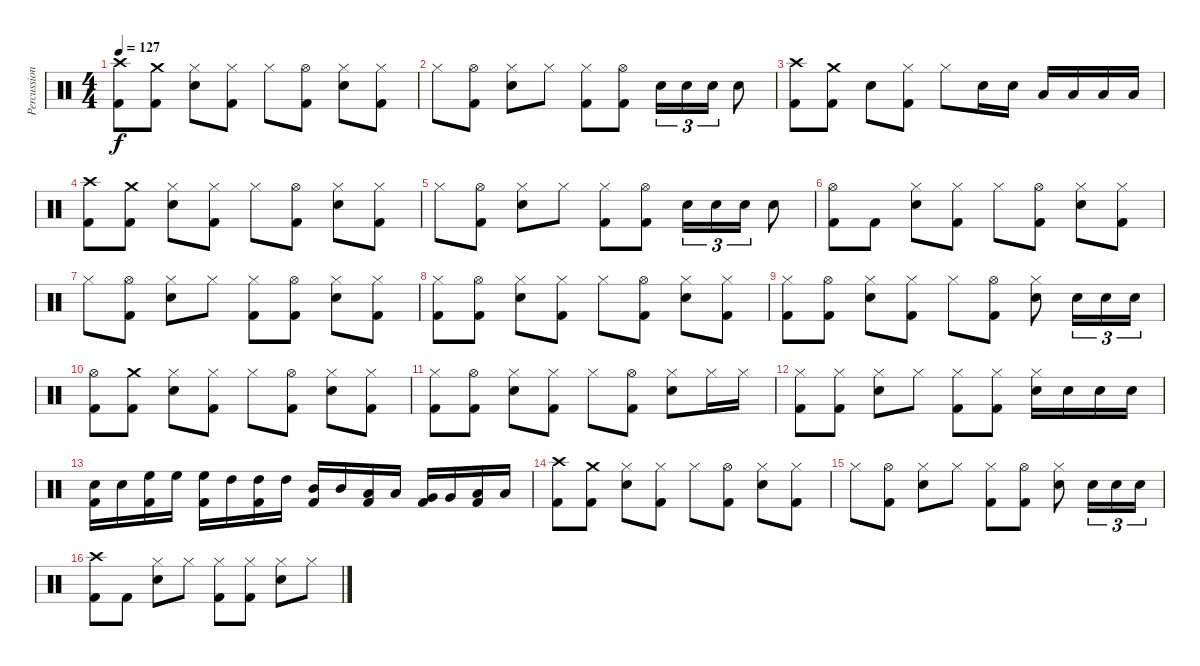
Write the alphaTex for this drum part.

\track ("Percussion" "Percussion") {instrument percussion}
\staff {score}
\articulation defaults
\ts (4 4)
\tempo 127
\clef neutral
\ks c
("Kick (hit) 2" "Crash high (hit)").8{dy f} ("Kick (hit) 2" "Crash medium (hit)").8 ("Snare (hit) 2" "Hi-Hat (closed)").8 ("Kick (hit) 2" "Hi-Hat (closed)").8 "Hi-Hat (closed)".8 ("Kick (hit) 2" "Hi-Hat (open)").8 ("Snare (hit) 2" "Hi-Hat (closed)").8 ("Kick (hit) 2" "Hi-Hat (closed)").8 |
"Hi-Hat (closed)".8 ("Kick (hit) 2" "Hi-Hat (open)").8 ("Snare (hit) 2" "Hi-Hat (closed)").8 "Hi-Hat (closed)".8 ("Kick (hit) 2" "Hi-Hat (closed)").8 ("Kick (hit) 2" "Hi-Hat (open)").8 "Snare (hit) 2".16{tu (3 2)} "Snare (hit) 2".16{tu (3 2)} "Snare (hit) 2".16{tu (3 2)} "Snare (hit) 2".8 |
("Kick (hit) 2" "Crash high (hit)").8 ("Kick (hit) 2" "Crash medium (hit)").8 "Snare (hit) 2".8 ("Kick (hit) 2" "Hi-Hat (closed)").8 "Hi-Hat (closed)".8 "Snare (hit) 2".16 "Snare (hit) 2".16 "Low Tom (hit)".16 "Low Tom (hit)".16 "Low Tom (hit)".16 "Low Tom (hit)".16 |
("Kick (hit) 2" "Crash high (hit)").8 ("Kick (hit) 2" "Crash medium (hit)").8 ("Snare (hit) 2" "Hi-Hat (closed)").8 ("Kick (hit) 2" "Hi-Hat (closed)").8 "Hi-Hat (closed)".8 ("Kick (hit) 2" "Hi-Hat (open)").8 ("Snare (hit) 2" "Hi-Hat (closed)").8 ("Kick (hit) 2" "Hi-Hat (closed)").8 |
"Hi-Hat (closed)".8 ("Kick (hit) 2" "Hi-Hat (open)").8 ("Snare (hit) 2" "Hi-Hat (closed)").8 "Hi-Hat (closed)".8 ("Kick (hit) 2" "Hi-Hat (closed)").8 ("Kick (hit) 2" "Hi-Hat (open)").8 "Snare (hit) 2".16{tu (3 2)} "Snare (hit) 2".16{tu (3 2)} "Snare (hit) 2".16{tu (3 2)} "Snare (hit) 2".8 |
("Kick (hit) 2" "Hi-Hat (open)").8 "Kick (hit) 2".8 ("Snare (hit) 2" "Hi-Hat (closed)").8 ("Kick (hit) 2" "Hi-Hat (closed)").8 "Hi-Hat (closed)".8 ("Kick (hit) 2" "Hi-Hat (open)").8 ("Snare (hit) 2" "Hi-Hat (closed)").8 ("Kick (hit) 2" "Hi-Hat (closed)").8 |
"Hi-Hat (closed)".8 ("Kick (hit) 2" "Hi-Hat (open)").8 ("Snare (hit) 2" "Hi-Hat (closed)").8 "Hi-Hat (closed)".8 ("Kick (hit) 2" "Hi-Hat (closed)").8 ("Kick (hit) 2" "Hi-Hat (open)").8 ("Snare (hit) 2" "Hi-Hat (closed)").8 ("Kick (hit) 2" "Hi-Hat (closed)").8 |
("Kick (hit) 2" "Hi-Hat (closed)").8 ("Kick (hit) 2" "Hi-Hat (open)").8 ("Snare (hit) 2" "Hi-Hat (closed)").8 ("Kick (hit) 2" "Hi-Hat (closed)").8 "Hi-Hat (closed)".8 ("Kick (hit) 2" "Hi-Hat (open)").8 ("Snare (hit) 2" "Hi-Hat (closed)").8 ("Kick (hit) 2" "Hi-Hat (closed)").8 |
("Kick (hit) 2" "Hi-Hat (closed)").8 ("Kick (hit) 2" "Hi-Hat (open)").8 ("Snare (hit) 2" "Hi-Hat (closed)").8 ("Kick (hit) 2" "Hi-Hat (closed)").8 "Hi-Hat (closed)".8 ("Kick (hit) 2" "Hi-Hat (open)").8 ("Snare (hit) 2" "Hi-Hat (closed)").8 "Snare (hit) 2".16{tu (3 2)} "Snare (hit) 2".16{tu (3 2)} "Snare (hit) 2".16{tu (3 2)} |
("Kick (hit) 2" "Hi-Hat (open)").8 ("Kick (hit) 2" "Crash medium (hit)").8 ("Snare (hit) 2" "Hi-Hat (closed)").8 ("Kick (hit) 2" "Hi-Hat (closed)").8 "Hi-Hat (closed)".8 ("Kick (hit) 2" "Hi-Hat (open)").8 ("Snare (hit) 2" "Hi-Hat (closed)").8 ("Kick (hit) 2" "Hi-Hat (closed)").8 |
("Kick (hit) 2" "Hi-Hat (closed)").8 ("Kick (hit) 2" "Hi-Hat (open)").8 ("Snare (hit) 2" "Hi-Hat (closed)").8 ("Kick (hit) 2" "Hi-Hat (closed)").8 "Hi-Hat (closed)".8 ("Kick (hit) 2" "Hi-Hat (open)").8 ("Snare (hit) 2" "Hi-Hat (closed)").8 "Hi-Hat (closed)".16 "Hi-Hat (closed)".16 |
("Kick (hit) 2" "Hi-Hat (closed)").8 ("Kick (hit) 2" "Hi-Hat (closed)").8 ("Snare (hit) 2" "Hi-Hat (closed)").8 "Hi-Hat (closed)".8 ("Kick (hit) 2" "Hi-Hat (closed)").8 ("Kick (hit) 2" "Hi-Hat (closed)").8 ("Snare (hit) 2" "Hi-Hat (closed)").16 "Snare (hit) 2".16 "Snare (hit) 2".16 "Snare (hit) 2".16 |
("Kick (hit) 2" "Snare (hit) 2").16 "Snare (hit) 2".16 ("Kick (hit) 2" "High Floor Tom (hit)").16 "High Floor Tom (hit)".16 ("Kick (hit) 2" "High Floor Tom (hit)").16 "High Tom (hit)".16 ("Kick (hit) 2" "High Tom (hit)").16 "High Tom (hit)".16 ("Kick (hit) 2" "Mid Tom (hit)").16 "Mid Tom (hit)".16 ("Kick (hit) 2" "Low Tom (hit)").16 "Low Tom (hit)".16 ("Kick (hit) 2" "Very Low Tom (hit)").16 "Very Low Tom (hit)".16 ("Kick (hit) 2" "Low Floor Tom (hit)").16 "Low Floor Tom (hit)".16 |
("Kick (hit) 2" "Crash high (hit)").8 ("Kick (hit) 2" "Crash medium (hit)").8 ("Snare (hit) 2" "Hi-Hat (closed)").8 ("Kick (hit) 2" "Hi-Hat (closed)").8 "Hi-Hat (closed)".8 ("Kick (hit) 2" "Hi-Hat (open)").8 ("Snare (hit) 2" "Hi-Hat (closed)").8 ("Kick (hit) 2" "Hi-Hat (closed)").8 |
"Hi-Hat (closed)".8 ("Kick (hit) 2" "Hi-Hat (open)").8 ("Snare (hit) 2" "Hi-Hat (closed)").8 "Hi-Hat (closed)".8 ("Kick (hit) 2" "Hi-Hat (closed)").8 ("Kick (hit) 2" "Hi-Hat (open)").8 ("Snare (hit) 2" "Hi-Hat (closed)").8 "Snare (hit) 2".16{tu (3 2)} "Snare (hit) 2".16{tu (3 2)} "Snare (hit) 2".16{tu (3 2)} |
("Kick (hit) 2" "Crash high (hit)").8 "Kick (hit) 2".8 ("Snare (hit) 2" "Hi-Hat (closed)").8 "Hi-Hat (closed)".8 ("Kick (hit) 2" "Hi-Hat (closed)").8 ("Kick (hit) 2" "Hi-Hat (closed)").8 ("Snare (hit) 2" "Hi-Hat (closed)").8 "Hi-Hat (closed)".8
